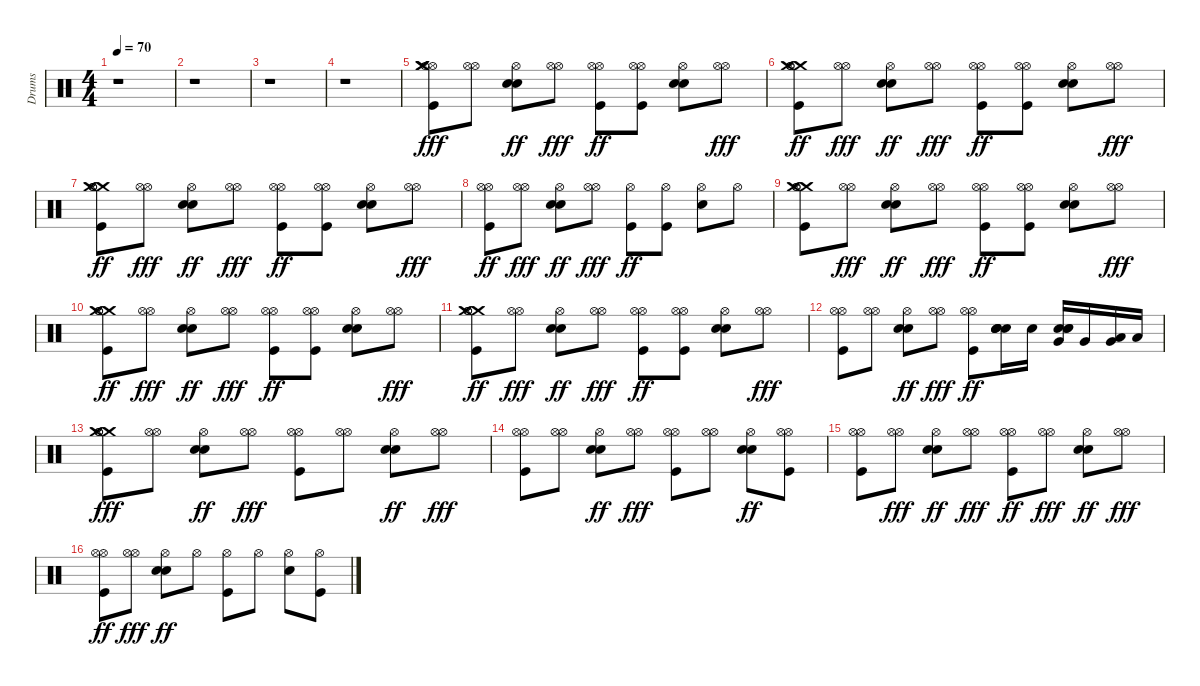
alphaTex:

\track ("Drums" "Drums") {instrument percussion}
\staff {score}
\articulation defaults
\ts (4 4)
\tempo 70
\clef neutral
\ks c
r.1{dy fff} |
r.1 |
r.1 |
r.1 |
("Kick (hit)" "Hi-Hat (open)" "Hi-Hat (open)" "Crash medium (hit)" "Crash medium (hit)").8 ("Hi-Hat (open)" "Hi-Hat (open)").8 ("Hi-Hat (open)" "Electric Snare (hit)" "Electric Snare (hit)").8{dy ff} ("Hi-Hat (open)" "Hi-Hat (open)").8{dy fff} ("Hi-Hat (open)" "Hi-Hat (open)" "Kick (hit)").8{dy ff} ("Hi-Hat (open)" "Hi-Hat (open)" "Kick (hit)").8 ("Hi-Hat (open)" "Electric Snare (hit)" "Electric Snare (hit)").8 ("Hi-Hat (open)" "Hi-Hat (open)").8{dy fff} |
("Crash medium (hit)" "Crash medium (hit)" "Hi-Hat (open)" "Hi-Hat (open)" "Kick (hit)").8{dy ff} ("Hi-Hat (open)" "Hi-Hat (open)").8{dy fff} ("Hi-Hat (open)" "Electric Snare (hit)" "Electric Snare (hit)").8{dy ff} ("Hi-Hat (open)" "Hi-Hat (open)").8{dy fff} ("Hi-Hat (open)" "Hi-Hat (open)" "Kick (hit)").8{dy ff} ("Hi-Hat (open)" "Hi-Hat (open)" "Kick (hit)").8 ("Hi-Hat (open)" "Electric Snare (hit)" "Electric Snare (hit)").8 ("Hi-Hat (open)" "Hi-Hat (open)").8{dy fff} |
("Crash medium (hit)" "Crash medium (hit)" "Hi-Hat (open)" "Hi-Hat (open)" "Kick (hit)").8{dy ff} ("Hi-Hat (open)" "Hi-Hat (open)").8{dy fff} ("Hi-Hat (open)" "Electric Snare (hit)" "Electric Snare (hit)").8{dy ff} ("Hi-Hat (open)" "Hi-Hat (open)").8{dy fff} ("Hi-Hat (open)" "Hi-Hat (open)" "Kick (hit)").8{dy ff} ("Hi-Hat (open)" "Hi-Hat (open)" "Kick (hit)").8 ("Hi-Hat (open)" "Electric Snare (hit)" "Electric Snare (hit)").8 ("Hi-Hat (open)" "Hi-Hat (open)").8{dy fff} |
("Hi-Hat (open)" "Hi-Hat (open)" "Kick (hit)").8{dy ff} ("Hi-Hat (open)" "Hi-Hat (open)").8{dy fff} ("Hi-Hat (open)" "Electric Snare (hit)" "Electric Snare (hit)").8{dy ff} ("Hi-Hat (open)" "Hi-Hat (open)").8{dy fff} ("Hi-Hat (open)" "Kick (hit)").8{dy ff} ("Hi-Hat (open)" "Kick (hit)").8 ("Hi-Hat (open)" "Electric Snare (hit)").8 "Hi-Hat (open)".8 |
("Crash medium (hit)" "Crash medium (hit)" "Hi-Hat (open)" "Hi-Hat (open)" "Kick (hit)").8 ("Hi-Hat (open)" "Hi-Hat (open)").8{dy fff} ("Hi-Hat (open)" "Electric Snare (hit)" "Electric Snare (hit)").8{dy ff} ("Hi-Hat (open)" "Hi-Hat (open)").8{dy fff} ("Hi-Hat (open)" "Hi-Hat (open)" "Kick (hit)").8{dy ff} ("Hi-Hat (open)" "Hi-Hat (open)" "Kick (hit)").8 ("Hi-Hat (open)" "Electric Snare (hit)" "Electric Snare (hit)").8 ("Hi-Hat (open)" "Hi-Hat (open)").8{dy fff} |
("Crash medium (hit)" "Crash medium (hit)" "Hi-Hat (open)" "Hi-Hat (open)" "Kick (hit)").8{dy ff} ("Hi-Hat (open)" "Hi-Hat (open)").8{dy fff} ("Hi-Hat (open)" "Electric Snare (hit)" "Electric Snare (hit)").8{dy ff} ("Hi-Hat (open)" "Hi-Hat (open)").8{dy fff} ("Hi-Hat (open)" "Hi-Hat (open)" "Kick (hit)").8{dy ff} ("Hi-Hat (open)" "Hi-Hat (open)" "Kick (hit)").8 ("Hi-Hat (open)" "Electric Snare (hit)" "Electric Snare (hit)").8 ("Hi-Hat (open)" "Hi-Hat (open)").8{dy fff} |
("Crash medium (hit)" "Crash medium (hit)" "Hi-Hat (open)" "Hi-Hat (open)" "Kick (hit)").8{dy ff} ("Hi-Hat (open)" "Hi-Hat (open)").8{dy fff} ("Hi-Hat (open)" "Electric Snare (hit)" "Electric Snare (hit)").8{dy ff} ("Hi-Hat (open)" "Hi-Hat (open)").8{dy fff} ("Hi-Hat (open)" "Hi-Hat (open)" "Kick (hit)").8{dy ff} ("Hi-Hat (open)" "Hi-Hat (open)" "Kick (hit)").8 ("Hi-Hat (open)" "Electric Snare (hit)" "Electric Snare (hit)").8 ("Hi-Hat (open)" "Hi-Hat (open)").8{dy fff} |
("Kick (hit)" "Hi-Hat (open)" "Hi-Hat (open)").8 ("Hi-Hat (open)" "Hi-Hat (open)").8 ("Hi-Hat (open)" "Electric Snare (hit)" "Electric Snare (hit)").8{dy ff} ("Hi-Hat (open)" "Hi-Hat (open)").8{dy fff} ("Hi-Hat (open)" "Hi-Hat (open)" "Kick (hit)").8{dy ff} ("Electric Snare (hit)" "Electric Snare (hit)" "Electric Snare (hit)" "Electric Snare (hit)").16 "Electric Snare (hit)".16 ("Very Low Tom (hit)" "Electric Snare (hit)" "Electric Snare (hit)" "Electric Snare (hit)").16 "Very Low Tom (hit)".16 ("Very Low Tom (hit)" "Low Floor Tom (hit)").16 "Low Floor Tom (hit)".16 |
("Crash medium (hit)" "Kick (hit)" "Hi-Hat (open)" "Hi-Hat (open)" "Crash medium (hit)").8{dy fff} ("Hi-Hat (open)" "Hi-Hat (open)").8 ("Hi-Hat (open)" "Electric Snare (hit)" "Electric Snare (hit)").8{dy ff} ("Hi-Hat (open)" "Hi-Hat (open)").8{dy fff} ("Kick (hit)" "Hi-Hat (open)" "Hi-Hat (open)").8 ("Hi-Hat (open)" "Hi-Hat (open)").8 ("Hi-Hat (open)" "Electric Snare (hit)" "Electric Snare (hit)").8{dy ff} ("Hi-Hat (open)" "Hi-Hat (open)").8{dy fff} |
("Kick (hit)" "Hi-Hat (open)" "Hi-Hat (open)").8 ("Hi-Hat (open)" "Hi-Hat (open)").8 ("Hi-Hat (open)" "Electric Snare (hit)" "Electric Snare (hit)").8{dy ff} ("Hi-Hat (open)" "Hi-Hat (open)").8{dy fff} ("Kick (hit)" "Hi-Hat (open)" "Hi-Hat (open)").8 ("Hi-Hat (open)" "Hi-Hat (open)").8 ("Hi-Hat (open)" "Electric Snare (hit)" "Electric Snare (hit)").8{dy ff} ("Hi-Hat (open)" "Hi-Hat (open)" "Kick (hit)").8 |
("Hi-Hat (open)" "Hi-Hat (open)" "Kick (hit)").8 ("Hi-Hat (open)" "Hi-Hat (open)").8{dy fff} ("Hi-Hat (open)" "Electric Snare (hit)" "Electric Snare (hit)").8{dy ff} ("Hi-Hat (open)" "Hi-Hat (open)").8{dy fff} ("Hi-Hat (open)" "Hi-Hat (open)" "Kick (hit)").8{dy ff} ("Hi-Hat (open)" "Hi-Hat (open)").8{dy fff} ("Hi-Hat (open)" "Electric Snare (hit)" "Electric Snare (hit)").8{dy ff} ("Hi-Hat (open)" "Hi-Hat (open)").8{dy fff} |
("Hi-Hat (open)" "Hi-Hat (open)" "Kick (hit)").8{dy ff} ("Hi-Hat (open)" "Hi-Hat (open)").8{dy fff} ("Hi-Hat (open)" "Electric Snare (hit)" "Electric Snare (hit)").8{dy ff} "Hi-Hat (open)".8 ("Hi-Hat (open)" "Kick (hit)").8 "Hi-Hat (open)".8 ("Hi-Hat (open)" "Electric Snare (hit)").8 ("Hi-Hat (open)" "Kick (hit)").8
